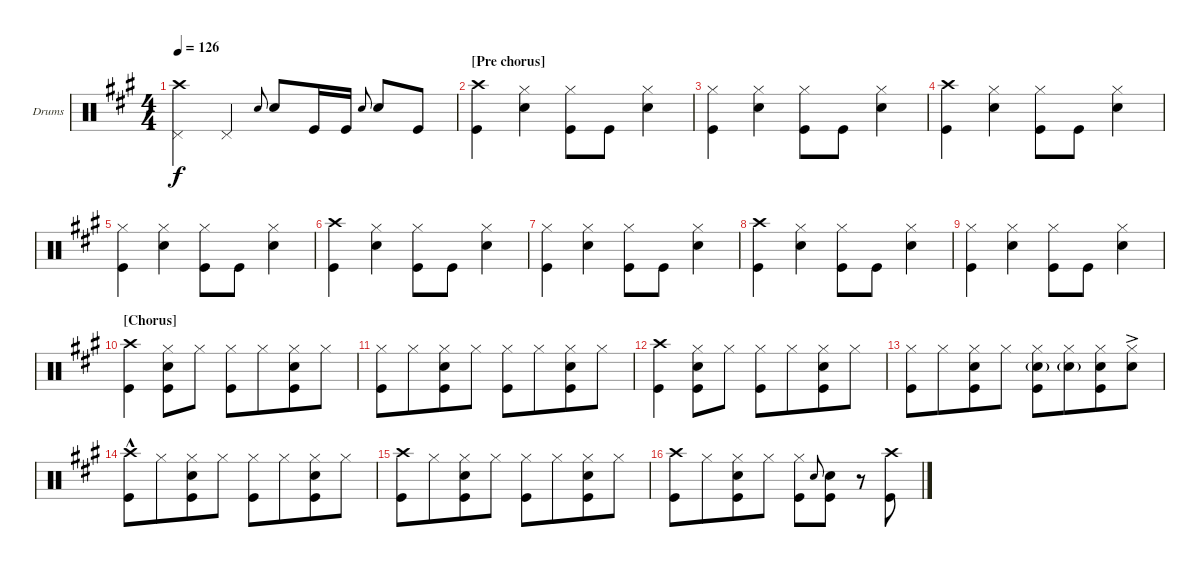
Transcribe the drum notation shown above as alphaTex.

\defaultSystemsLayout 4
\bracketExtendMode groupsimilarinstruments
\firstSystemTrackNameOrientation horizontal
\otherSystemsTrackNameOrientation horizontal
\track ("Drums" "Drums") {instrument percussion}
\staff {score}
\articulation defaults
\ts (4 4)
\tempo 126
\clef neutral
\ks a
("Crash high (hit)"{t} "Pedal Hi-Hat (hit)").4{dy f} "Pedal Hi-Hat (hit)".4 "Snare (hit) 2".8{gr onbeat} "Snare (hit) 2".8 "Kick (hit)".16 "Kick (hit)".16 "Snare (hit) 2".8{gr onbeat} "Snare (hit) 2".8 "Kick (hit)".8 |
\section ("" "[Pre chorus]")
("Kick (hit)" "Crash high (hit)").4 ("Snare (hit) 2" "Hi-Hat (closed)").4 ("Kick (hit)" "Hi-Hat (closed)").8 "Kick (hit)".8 ("Snare (hit) 2" "Hi-Hat (closed)").4 |
("Hi-Hat (closed)" "Kick (hit)").4 ("Snare (hit) 2" "Hi-Hat (closed)").4 ("Kick (hit)" "Hi-Hat (closed)").8 "Kick (hit)".8 ("Snare (hit) 2" "Hi-Hat (closed)").4 |
("Kick (hit)" "Crash high (hit)").4 ("Snare (hit) 2" "Hi-Hat (closed)").4 ("Kick (hit)" "Hi-Hat (closed)").8 "Kick (hit)".8 ("Snare (hit) 2" "Hi-Hat (closed)").4 |
("Hi-Hat (closed)" "Kick (hit)").4 ("Snare (hit) 2" "Hi-Hat (closed)").4 ("Kick (hit)" "Hi-Hat (closed)").8 "Kick (hit)".8 ("Snare (hit) 2" "Hi-Hat (closed)").4 |
("Kick (hit)" "Crash high (hit)").4 ("Snare (hit) 2" "Hi-Hat (closed)").4 ("Kick (hit)" "Hi-Hat (closed)").8 "Kick (hit)".8 ("Snare (hit) 2" "Hi-Hat (closed)").4 |
("Hi-Hat (closed)" "Kick (hit)").4 ("Snare (hit) 2" "Hi-Hat (closed)").4 ("Kick (hit)" "Hi-Hat (closed)").8 "Kick (hit)".8 ("Snare (hit) 2" "Hi-Hat (closed)").4 |
("Kick (hit)" "Crash high (hit)").4 ("Snare (hit) 2" "Hi-Hat (closed)").4 ("Kick (hit)" "Hi-Hat (closed)").8 "Kick (hit)".8 ("Snare (hit) 2" "Hi-Hat (closed)").4 |
("Hi-Hat (closed)" "Kick (hit)").4 ("Snare (hit) 2" "Hi-Hat (closed)").4 ("Kick (hit)" "Hi-Hat (closed)").8 "Kick (hit)".8 ("Snare (hit) 2" "Hi-Hat (closed)").4 |
\section ("" "[Chorus]")
("Kick (hit)" "Crash high (hit)").4 ("Kick (hit)" "Hi-Hat (closed)" "Snare (hit) 2").8 "Hi-Hat (closed)".8 ("Kick (hit)" "Hi-Hat (closed)").8 "Hi-Hat (closed)".8{beam merge} ("Kick (hit)" "Hi-Hat (closed)" "Snare (hit) 2").8 "Hi-Hat (closed)".8 |
("Kick (hit)" "Hi-Hat (closed)").8 "Hi-Hat (closed)".8{beam merge} ("Kick (hit)" "Hi-Hat (closed)" "Snare (hit) 2").8 "Hi-Hat (closed)".8 ("Kick (hit)" "Hi-Hat (closed)").8 "Hi-Hat (closed)".8{beam merge} ("Kick (hit)" "Hi-Hat (closed)" "Snare (hit) 2").8{beam merge} "Hi-Hat (closed)".8 |
("Kick (hit)" "Crash high (hit)").4 ("Kick (hit)" "Hi-Hat (closed)" "Snare (hit) 2").8 "Hi-Hat (closed)".8 ("Kick (hit)" "Hi-Hat (closed)").8 "Hi-Hat (closed)".8{beam merge} ("Kick (hit)" "Hi-Hat (closed)" "Snare (hit) 2").8 "Hi-Hat (closed)".8 |
("Kick (hit)" "Hi-Hat (closed)").8 "Hi-Hat (closed)".8{beam merge} ("Kick (hit)" "Hi-Hat (closed)" "Snare (hit) 2").8 "Hi-Hat (closed)".8 ("Kick (hit)" "Hi-Hat (closed)" "Snare (hit) 2"{g}).8{beam merge} ("Hi-Hat (closed)" "Snare (hit) 2"{g}).8{beam merge} ("Kick (hit)" "Hi-Hat (closed)" "Snare (hit) 2").8 ("Hi-Hat (closed)" "Snare (hit) 2"{ac}).8 |
("Crash high (hit)"{hac} "Kick (hit)").8 "Hi-Hat (closed)".8{beam merge} ("Hi-Hat (closed)" "Kick (hit)" "Snare (hit) 2").8 "Hi-Hat (closed)".8 ("Hi-Hat (closed)" "Kick (hit)").8 "Hi-Hat (closed)".8{beam merge} ("Hi-Hat (closed)" "Kick (hit)" "Snare (hit) 2").8 "Hi-Hat (closed)".8 |
("Crash high (hit)" "Kick (hit)").8 "Hi-Hat (closed)".8{beam merge} ("Hi-Hat (closed)" "Kick (hit)" "Snare (hit) 2").8 "Hi-Hat (closed)".8 ("Hi-Hat (closed)" "Kick (hit)").8 "Hi-Hat (closed)".8{beam merge} ("Hi-Hat (closed)" "Kick (hit)" "Snare (hit) 2").8 "Hi-Hat (closed)".8 |
("Crash high (hit)" "Kick (hit)").8 "Hi-Hat (closed)".8{beam merge} ("Hi-Hat (closed)" "Kick (hit)" "Snare (hit) 2").8 "Hi-Hat (closed)".8 ("Kick (hit)" "Hi-Hat (closed)").8 "Snare (hit) 2".8{gr onbeat} ("Kick (hit)" "Snare (hit) 2").8 r.8 ("Kick (hit)" "Crash high (hit)").8
